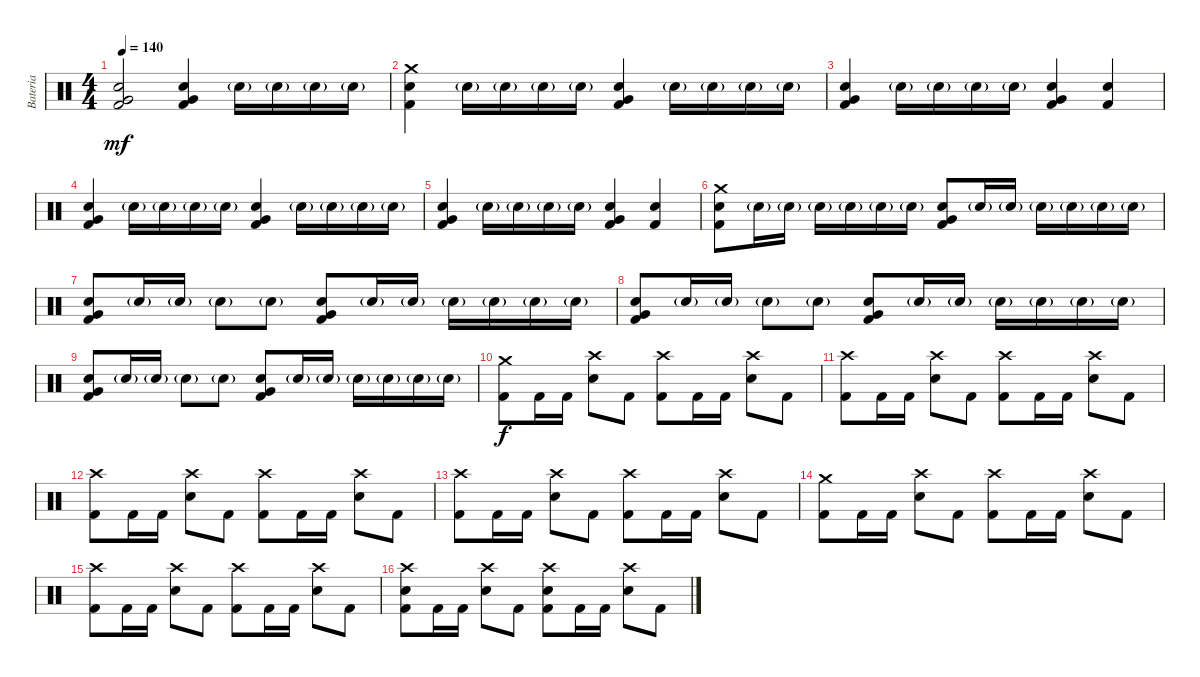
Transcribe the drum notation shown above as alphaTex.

\track ("Bateria" "Bateria") {instrument percussion}
\staff {score}
\articulation defaults
\ts (4 4)
\tempo 140
\clef neutral
\ks c
("Very Low Tom (hit)" "Snare (hit) 2" "Kick (hit) 2").2{dy mf} ("Very Low Tom (hit)" "Snare (hit) 2" "Kick (hit) 2").4 "Snare (hit) 2"{g}.16 "Snare (hit) 2"{g}.16 "Snare (hit) 2"{g}.16 "Snare (hit) 2"{g}.16 |
("Crash medium (hit)" "Snare (hit) 2" "Kick (hit) 2").4 "Snare (hit) 2"{g}.16 "Snare (hit) 2"{g}.16 "Snare (hit) 2"{g}.16 "Snare (hit) 2"{g}.16 ("Very Low Tom (hit)" "Snare (hit) 2" "Kick (hit) 2").4 "Snare (hit) 2"{g}.16 "Snare (hit) 2"{g}.16 "Snare (hit) 2"{g}.16 "Snare (hit) 2"{g}.16 |
("Very Low Tom (hit)" "Snare (hit) 2" "Kick (hit) 2").4 "Snare (hit) 2"{g}.16 "Snare (hit) 2"{g}.16 "Snare (hit) 2"{g}.16 "Snare (hit) 2"{g}.16 ("Very Low Tom (hit)" "Snare (hit) 2" "Kick (hit) 2").4 ("Snare (hit) 2" "Kick (hit) 2").4 |
("Very Low Tom (hit)" "Snare (hit) 2" "Kick (hit) 2").4 "Snare (hit) 2"{g}.16 "Snare (hit) 2"{g}.16 "Snare (hit) 2"{g}.16 "Snare (hit) 2"{g}.16 ("Very Low Tom (hit)" "Snare (hit) 2" "Kick (hit) 2").4 "Snare (hit) 2"{g}.16 "Snare (hit) 2"{g}.16 "Snare (hit) 2"{g}.16 "Snare (hit) 2"{g}.16 |
("Very Low Tom (hit)" "Snare (hit) 2" "Kick (hit) 2").4 "Snare (hit) 2"{g}.16 "Snare (hit) 2"{g}.16 "Snare (hit) 2"{g}.16 "Snare (hit) 2"{g}.16 ("Very Low Tom (hit)" "Snare (hit) 2" "Kick (hit) 2").4 ("Snare (hit) 2" "Kick (hit) 2").4 |
("Crash medium (hit)" "Snare (hit) 2" "Kick (hit) 2").8 "Snare (hit) 2"{g}.16 "Snare (hit) 2"{g}.16 "Snare (hit) 2"{g}.16 "Snare (hit) 2"{g}.16 "Snare (hit) 2"{g}.16 "Snare (hit) 2"{g}.16 ("Very Low Tom (hit)" "Snare (hit) 2" "Kick (hit) 2").8 "Snare (hit) 2"{g}.16 "Snare (hit) 2"{g}.16 "Snare (hit) 2"{g}.16 "Snare (hit) 2"{g}.16 "Snare (hit) 2"{g}.16 "Snare (hit) 2"{g}.16 |
("Very Low Tom (hit)" "Snare (hit) 2" "Kick (hit) 2").8 "Snare (hit) 2"{g}.16 "Snare (hit) 2"{g}.16 "Snare (hit) 2"{g}.8 "Snare (hit) 2"{g}.8 ("Very Low Tom (hit)" "Snare (hit) 2" "Kick (hit) 2").8 "Snare (hit) 2"{g}.16 "Snare (hit) 2"{g}.16 "Snare (hit) 2"{g}.16 "Snare (hit) 2"{g}.16 "Snare (hit) 2"{g}.16 "Snare (hit) 2"{g}.16 |
("Very Low Tom (hit)" "Snare (hit) 2" "Kick (hit) 2").8 "Snare (hit) 2"{g}.16 "Snare (hit) 2"{g}.16 "Snare (hit) 2"{g}.8 "Snare (hit) 2"{g}.8 ("Very Low Tom (hit)" "Snare (hit) 2" "Kick (hit) 2").8 "Snare (hit) 2"{g}.16 "Snare (hit) 2"{g}.16 "Snare (hit) 2"{g}.16 "Snare (hit) 2"{g}.16 "Snare (hit) 2"{g}.16 "Snare (hit) 2"{g}.16 |
("Very Low Tom (hit)" "Snare (hit) 2" "Kick (hit) 2").8 "Snare (hit) 2"{g}.16 "Snare (hit) 2"{g}.16 "Snare (hit) 2"{g}.8 "Snare (hit) 2"{g}.8 ("Very Low Tom (hit)" "Snare (hit) 2" "Kick (hit) 2").8 "Snare (hit) 2"{g}.16 "Snare (hit) 2"{g}.16 "Snare (hit) 2"{g}.16 "Snare (hit) 2"{g}.16 "Snare (hit) 2"{g}.16 "Snare (hit) 2"{g}.16 |
("Crash medium (hit)" "Kick (hit) 2").8{dy f} "Kick (hit) 2".16 "Kick (hit) 2".16 ("Crash high (hit)" "Snare (hit) 2").8 "Kick (hit) 2".8 ("Crash high (hit)" "Kick (hit) 2").8 "Kick (hit) 2".16 "Kick (hit) 2".16 ("Crash high (hit)" "Snare (hit) 2").8 "Kick (hit) 2".8 |
("Crash high (hit)" "Kick (hit) 2").8 "Kick (hit) 2".16 "Kick (hit) 2".16 ("Crash high (hit)" "Snare (hit) 2").8 "Kick (hit) 2".8 ("Crash high (hit)" "Kick (hit) 2").8 "Kick (hit) 2".16 "Kick (hit) 2".16 ("Crash high (hit)" "Snare (hit) 2").8 "Kick (hit) 2".8 |
("Crash high (hit)" "Kick (hit) 2").8 "Kick (hit) 2".16 "Kick (hit) 2".16 ("Crash high (hit)" "Snare (hit) 2").8 "Kick (hit) 2".8 ("Crash high (hit)" "Kick (hit) 2").8 "Kick (hit) 2".16 "Kick (hit) 2".16 ("Crash high (hit)" "Snare (hit) 2").8 "Kick (hit) 2".8 |
("Crash high (hit)" "Kick (hit) 2").8 "Kick (hit) 2".16 "Kick (hit) 2".16 ("Crash high (hit)" "Snare (hit) 2").8 "Kick (hit) 2".8 ("Crash high (hit)" "Kick (hit) 2").8 "Kick (hit) 2".16 "Kick (hit) 2".16 ("Crash high (hit)" "Snare (hit) 2").8 "Kick (hit) 2".8 |
("Crash medium (hit)" "Kick (hit) 2").8 "Kick (hit) 2".16 "Kick (hit) 2".16 ("Crash high (hit)" "Snare (hit) 2").8 "Kick (hit) 2".8 ("Crash high (hit)" "Kick (hit) 2").8 "Kick (hit) 2".16 "Kick (hit) 2".16 ("Crash high (hit)" "Snare (hit) 2").8 "Kick (hit) 2".8 |
("Crash high (hit)" "Kick (hit) 2").8 "Kick (hit) 2".16 "Kick (hit) 2".16 ("Crash high (hit)" "Snare (hit) 2").8 "Kick (hit) 2".8 ("Crash high (hit)" "Kick (hit) 2").8 "Kick (hit) 2".16 "Kick (hit) 2".16 ("Crash high (hit)" "Snare (hit) 2").8 "Kick (hit) 2".8 |
("Crash high (hit)" "Snare (hit) 2" "Kick (hit) 2").8 "Kick (hit) 2".16 "Kick (hit) 2".16 ("Crash high (hit)" "Snare (hit) 2").8 "Kick (hit) 2".8 ("Crash high (hit)" "Snare (hit) 2" "Kick (hit) 2").8 "Kick (hit) 2".16 "Kick (hit) 2".16 ("Crash high (hit)" "Snare (hit) 2").8 "Kick (hit) 2".8
